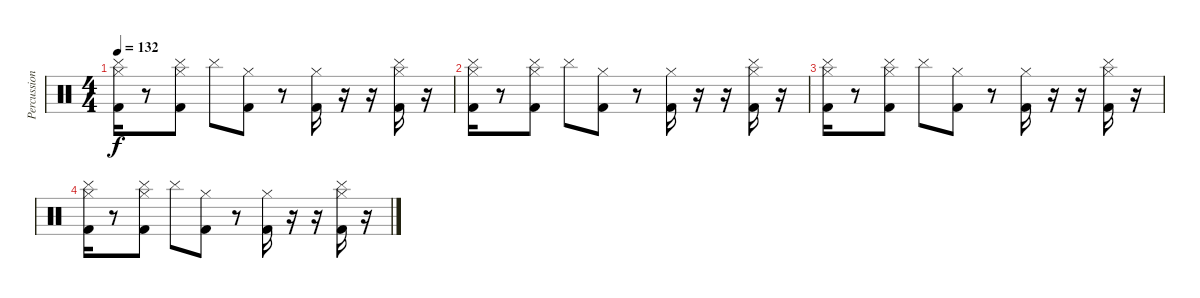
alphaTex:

\track ("Percussions" "Percussion") {instrument percussion}
\staff {score}
\articulation defaults
\ts (4 4)
\tempo 132
\clef neutral
\ks c
("Cymbal (hit)" "Kick (hit) 2" "Hi-Hat (closed)").16{dy f} r.8 ("Cymbal (hit)" "Kick (hit) 2" "Hi-Hat (closed)").8 "Cymbal (hit)".8 ("Kick (hit) 2" "Hi-Hat (closed)").8 r.8 ("Kick (hit) 2" "Hi-Hat (closed)").16 r.16 r.16 ("Cymbal (hit)" "Kick (hit) 2" "Hi-Hat (closed)").16 r.16 |
("Cymbal (hit)" "Kick (hit) 2" "Hi-Hat (closed)").16 r.8 ("Cymbal (hit)" "Kick (hit) 2" "Hi-Hat (closed)").8 "Cymbal (hit)".8 ("Kick (hit) 2" "Hi-Hat (closed)").8 r.8 ("Kick (hit) 2" "Hi-Hat (closed)").16 r.16 r.16 ("Cymbal (hit)" "Kick (hit) 2" "Hi-Hat (closed)").16 r.16 |
("Cymbal (hit)" "Kick (hit) 2" "Hi-Hat (closed)").16 r.8 ("Cymbal (hit)" "Kick (hit) 2" "Hi-Hat (closed)").8 "Cymbal (hit)".8 ("Kick (hit) 2" "Hi-Hat (closed)").8 r.8 ("Kick (hit) 2" "Hi-Hat (closed)").16 r.16 r.16 ("Cymbal (hit)" "Kick (hit) 2" "Hi-Hat (closed)").16 r.16 |
("Cymbal (hit)" "Kick (hit) 2" "Hi-Hat (closed)").16 r.8 ("Cymbal (hit)" "Kick (hit) 2" "Hi-Hat (closed)").8 "Cymbal (hit)".8 ("Kick (hit) 2" "Hi-Hat (closed)").8 r.8 ("Kick (hit) 2" "Hi-Hat (closed)").16 r.16 r.16 ("Cymbal (hit)" "Kick (hit) 2" "Hi-Hat (closed)").16 r.16
